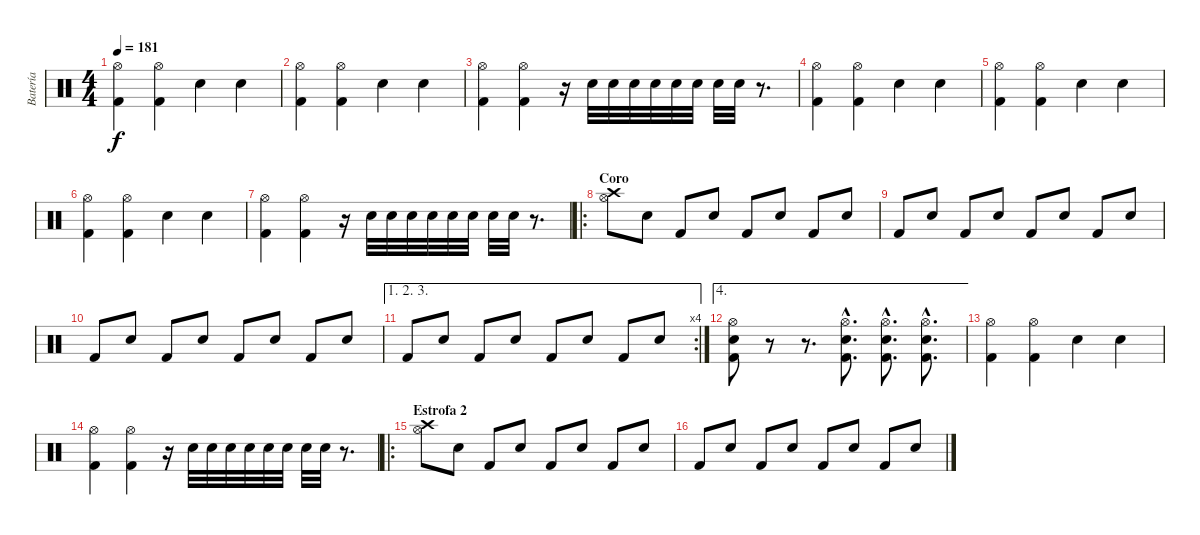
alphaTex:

\track ("Batería" "Batería") {instrument percussion}
\staff {score}
\articulation defaults
\ts (4 4)
\tempo 181
\clef neutral
\ks c
("Hi-Hat (open)" "Kick (hit) 2").4{dy f} ("Hi-Hat (open)" "Kick (hit) 2").4 "Snare (hit) 2".4 "Snare (hit) 2".4 |
("Hi-Hat (open)" "Kick (hit) 2").4 ("Hi-Hat (open)" "Kick (hit) 2").4 "Snare (hit) 2".4 "Snare (hit) 2".4 |
("Hi-Hat (open)" "Kick (hit) 2").4 ("Hi-Hat (open)" "Kick (hit) 2").4 r.16 "Electric Snare (hit)".32 "Electric Snare (hit)".32 "Electric Snare (hit)".32 "Electric Snare (hit)".32 "Electric Snare (hit)".32 "Electric Snare (hit)".32 "Electric Snare (hit)".32 "Electric Snare (hit)".32 r.8{d} |
("Hi-Hat (open)" "Kick (hit) 2").4 ("Hi-Hat (open)" "Kick (hit) 2").4 "Snare (hit) 2".4 "Snare (hit) 2".4 |
("Hi-Hat (open)" "Kick (hit) 2").4 ("Hi-Hat (open)" "Kick (hit) 2").4 "Snare (hit) 2".4 "Snare (hit) 2".4 |
("Hi-Hat (open)" "Kick (hit) 2").4 ("Hi-Hat (open)" "Kick (hit) 2").4 "Snare (hit) 2".4 "Snare (hit) 2".4 |
("Hi-Hat (open)" "Kick (hit) 2").4 ("Hi-Hat (open)" "Kick (hit) 2").4 r.16 "Electric Snare (hit)".32 "Electric Snare (hit)".32 "Electric Snare (hit)".32 "Electric Snare (hit)".32 "Electric Snare (hit)".32 "Electric Snare (hit)".32 "Electric Snare (hit)".32 "Electric Snare (hit)".32 r.8{d} |
\ro
\section ("" "Coro")
("Crash high (hit)" "Hi-Hat (open)").8 "Electric Snare (hit)".8 "Kick (hit) 2".8 "Electric Snare (hit)".8 "Kick (hit) 2".8 "Electric Snare (hit)".8 "Kick (hit) 2".8 "Electric Snare (hit)".8 |
"Kick (hit) 2".8 "Electric Snare (hit)".8 "Kick (hit) 2".8 "Electric Snare (hit)".8 "Kick (hit) 2".8 "Electric Snare (hit)".8 "Kick (hit) 2".8 "Electric Snare (hit)".8 |
"Kick (hit) 2".8 "Electric Snare (hit)".8 "Kick (hit) 2".8 "Electric Snare (hit)".8 "Kick (hit) 2".8 "Electric Snare (hit)".8 "Kick (hit) 2".8 "Electric Snare (hit)".8 |
\ae (1 2 3)
\rc 4 "Kick (hit) 2".8 "Electric Snare (hit)".8 "Kick (hit) 2".8 "Electric Snare (hit)".8 "Kick (hit) 2".8 "Electric Snare (hit)".8 "Kick (hit) 2".8 "Electric Snare (hit)".8
|
\ae 4
("Hi-Hat (open)" "Kick (hit) 2" "Electric Snare (hit)").8 r.8 r.8{d} ("Hi-Hat (open)"{hac} "Kick (hit) 2"{hac} "Electric Snare (hit)"{hac}).8{d} ("Hi-Hat (open)"{hac} "Kick (hit) 2"{hac} "Electric Snare (hit)"{hac}).8{d} ("Hi-Hat (open)"{hac} "Kick (hit) 2"{hac} "Electric Snare (hit)"{hac}).8{d} |
("Hi-Hat (open)" "Kick (hit) 2").4 ("Hi-Hat (open)" "Kick (hit) 2").4 "Snare (hit) 2".4 "Snare (hit) 2".4 |
("Hi-Hat (open)" "Kick (hit) 2").4 ("Hi-Hat (open)" "Kick (hit) 2").4 r.16 "Electric Snare (hit)".32 "Electric Snare (hit)".32 "Electric Snare (hit)".32 "Electric Snare (hit)".32 "Electric Snare (hit)".32 "Electric Snare (hit)".32 "Electric Snare (hit)".32 "Electric Snare (hit)".32 r.8{d} |
\ro
\section ("" "Estrofa 2")
("Crash high (hit)" "Hi-Hat (open)").8 "Electric Snare (hit)".8 "Kick (hit) 2".8 "Electric Snare (hit)".8 "Kick (hit) 2".8 "Electric Snare (hit)".8 "Kick (hit) 2".8 "Electric Snare (hit)".8 |
"Kick (hit) 2".8 "Electric Snare (hit)".8 "Kick (hit) 2".8 "Electric Snare (hit)".8 "Kick (hit) 2".8 "Electric Snare (hit)".8 "Kick (hit) 2".8 "Electric Snare (hit)".8
